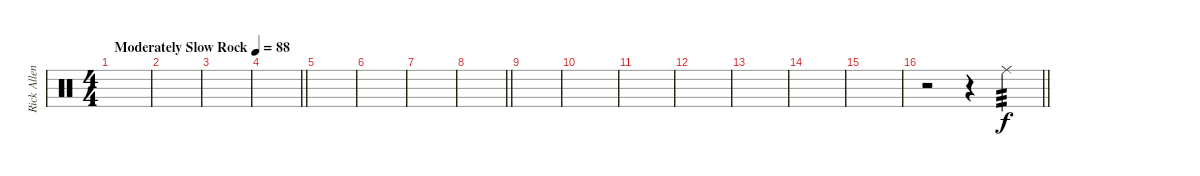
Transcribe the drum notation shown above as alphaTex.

\track ("Rick Allen" "Rick Allen") {instrument percussion}
\staff {score}
\articulation defaults
\ts (4 4)
\tempo (88 "Moderately Slow Rock")
\clef neutral
\ks c
|
|
|
\barLineRight lightlight
|
|
|
|
\barLineRight lightlight
|
|
|
|
|
|
|
|
\barLineRight lightlight
r.2 r.4 "Ride (middle)".4{tp 3}
